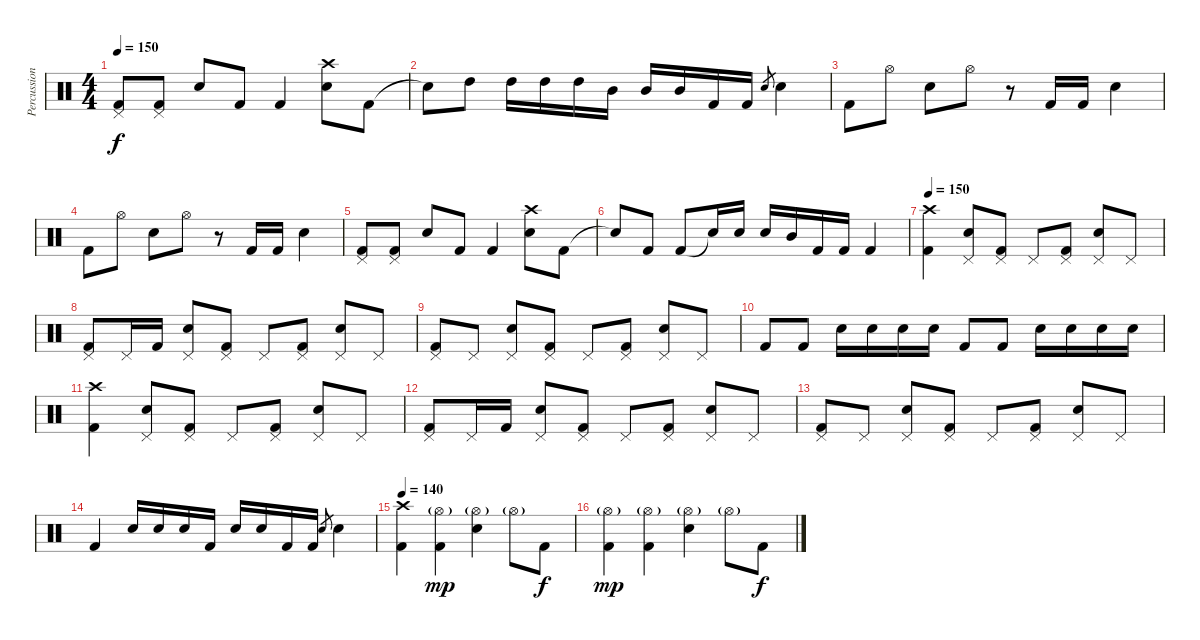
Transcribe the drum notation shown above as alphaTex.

\track ("Percussion" "Percussion") {instrument percussion}
\staff {score}
\articulation defaults
\ts (4 4)
\tempo 150
\clef neutral
\ks c
("Pedal Hi-Hat (hit)" "Kick (hit) 2").8{dy f} ("Pedal Hi-Hat (hit)" "Kick (hit) 2").8 "Snare (hit) 2".8 "Kick (hit) 2".8 "Kick (hit) 2".4 ("Crash high (hit)" "Snare (hit) 2").8 "Kick (hit) 2".8 |
"Snare (hit)"{t}.8 "High Tom (hit)".8 "High Tom (hit)".16 "High Tom (hit)".16 "High Tom (hit)".16 "Mid Tom (hit)".16 "Mid Tom (hit)".16 "Mid Tom (hit)".16 "Kick (hit) 2".16 "Kick (hit) 2".16 "Snare (hit) 2".8{gr} "Snare (hit) 2".4 |
"Kick (hit) 2".8 "Hi-Hat (open)".8 "Snare (hit) 2".8 "Hi-Hat (open)".8 r.8 "Kick (hit) 2".16 "Kick (hit) 2".16 "Snare (hit) 2".4 |
"Kick (hit) 2".8 "Hi-Hat (open)".8 "Snare (hit) 2".8 "Hi-Hat (open)".8 r.8 "Kick (hit) 2".16 "Kick (hit) 2".16 "Snare (hit) 2".4 |
("Pedal Hi-Hat (hit)" "Kick (hit) 2").8 ("Pedal Hi-Hat (hit)" "Kick (hit) 2").8 "Snare (hit) 2".8 "Kick (hit) 2".8 "Kick (hit) 2".4 ("Crash high (hit)" "Snare (hit) 2").8 "Kick (hit) 2".8 |
"Snare (hit)"{t}.8 "Kick (hit) 2".8 "Kick (hit) 2".8 "Snare (hit)"{t}.16 "Snare (hit) 2".16 "Snare (hit) 2".16 "Mid Tom (hit)".16 "Kick (hit) 2".16 "Kick (hit) 2".16 "Kick (hit) 2".4 |
\tempo 150
("Crash high (hit)" "Kick (hit) 2").4 ("Pedal Hi-Hat (hit)" "Snare (hit) 2").8 ("Pedal Hi-Hat (hit)" "Kick (hit) 2").8 "Pedal Hi-Hat (hit)".8 ("Pedal Hi-Hat (hit)" "Kick (hit) 2").8 ("Pedal Hi-Hat (hit)" "Snare (hit) 2").8 "Pedal Hi-Hat (hit)".8 |
("Pedal Hi-Hat (hit)" "Kick (hit) 2").8 "Pedal Hi-Hat (hit)".16 "Kick (hit) 2".16 ("Pedal Hi-Hat (hit)" "Snare (hit) 2").8 ("Pedal Hi-Hat (hit)" "Kick (hit) 2").8 "Pedal Hi-Hat (hit)".8 ("Pedal Hi-Hat (hit)" "Kick (hit) 2").8 ("Pedal Hi-Hat (hit)" "Snare (hit) 2").8 "Pedal Hi-Hat (hit)".8 |
("Pedal Hi-Hat (hit)" "Kick (hit) 2").8 "Pedal Hi-Hat (hit)".8 ("Pedal Hi-Hat (hit)" "Snare (hit) 2").8 ("Pedal Hi-Hat (hit)" "Kick (hit) 2").8 "Pedal Hi-Hat (hit)".8 ("Pedal Hi-Hat (hit)" "Kick (hit) 2").8 ("Pedal Hi-Hat (hit)" "Snare (hit) 2").8 "Pedal Hi-Hat (hit)".8 |
"Kick (hit) 2".8 "Kick (hit) 2".8 "Snare (hit) 2".16 "Snare (hit) 2".16 "Snare (hit) 2".16 "Snare (hit) 2".16 "Kick (hit) 2".8 "Kick (hit) 2".8 "Snare (hit) 2".16 "Snare (hit) 2".16 "Snare (hit) 2".16 "Snare (hit) 2".16 |
("Crash high (hit)" "Kick (hit) 2").4 ("Pedal Hi-Hat (hit)" "Snare (hit) 2").8 ("Pedal Hi-Hat (hit)" "Kick (hit) 2").8 "Pedal Hi-Hat (hit)".8 ("Pedal Hi-Hat (hit)" "Kick (hit) 2").8 ("Pedal Hi-Hat (hit)" "Snare (hit) 2").8 "Pedal Hi-Hat (hit)".8 |
("Pedal Hi-Hat (hit)" "Kick (hit) 2").8 "Pedal Hi-Hat (hit)".16 "Kick (hit) 2".16 ("Pedal Hi-Hat (hit)" "Snare (hit) 2").8 ("Pedal Hi-Hat (hit)" "Kick (hit) 2").8 "Pedal Hi-Hat (hit)".8 ("Pedal Hi-Hat (hit)" "Kick (hit) 2").8 ("Pedal Hi-Hat (hit)" "Snare (hit) 2").8 "Pedal Hi-Hat (hit)".8 |
("Pedal Hi-Hat (hit)" "Kick (hit) 2").8 "Pedal Hi-Hat (hit)".8 ("Pedal Hi-Hat (hit)" "Snare (hit) 2").8 ("Pedal Hi-Hat (hit)" "Kick (hit) 2").8 "Pedal Hi-Hat (hit)".8 ("Pedal Hi-Hat (hit)" "Kick (hit) 2").8 ("Pedal Hi-Hat (hit)" "Snare (hit) 2").8 "Pedal Hi-Hat (hit)".8 |
"Kick (hit) 2".4 "Snare (hit) 2".16 "Snare (hit) 2".16 "Snare (hit) 2".16 "Kick (hit) 2".16 "Snare (hit) 2".16 "Snare (hit) 2".16 "Kick (hit) 2".16 "Kick (hit) 2".16 "Snare (hit) 2".8{gr} "Snare (hit) 2".4 |
\tempo 140
("Crash high (hit)" "Kick (hit) 2").4 ("Hi-Hat (open)"{g} "Kick (hit) 2").4{dy mp} ("Hi-Hat (open)"{g} "Snare (hit) 2").4 "Hi-Hat (open)"{g}.8 "Kick (hit) 2".8{dy f} |
("Hi-Hat (open)"{g} "Kick (hit) 2").4{dy mp} ("Hi-Hat (open)"{g} "Kick (hit) 2").4 ("Hi-Hat (open)"{g} "Snare (hit) 2").4 "Hi-Hat (open)"{g}.8 "Kick (hit) 2".8{dy f}
